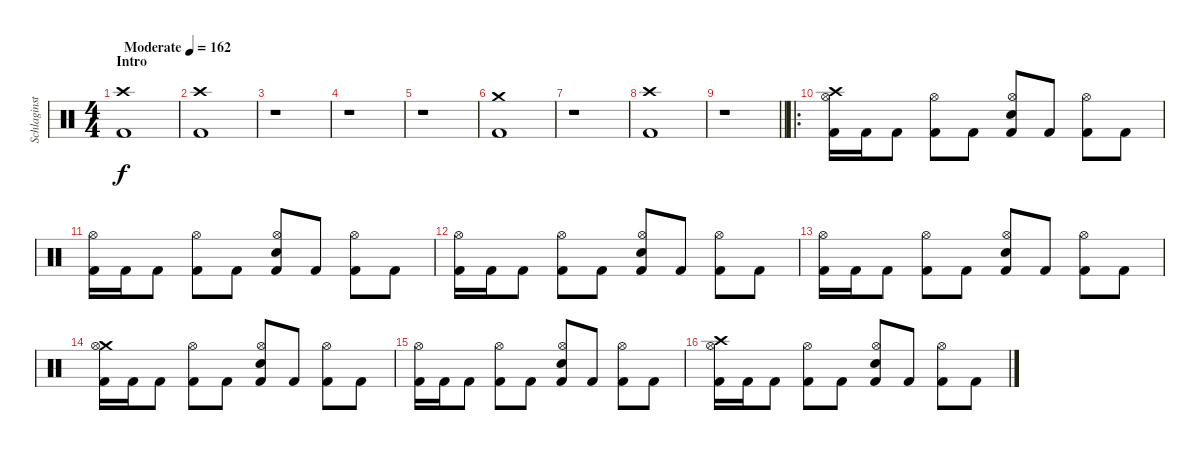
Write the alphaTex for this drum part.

\track ("Schlaginstrumente - Auswahl" "Schlaginst") {instrument percussion}
\staff {score}
\articulation defaults
\ts (4 4)
\section ("" "Intro")
\tempo (162 "Moderate")
\clef neutral
\ks c
("Crash high (hit)" "Kick (hit) 2").1{dy f} |
("Crash high (hit)" "Kick (hit) 2").1 |
r.1 |
r.1 |
r.1 |
("Crash medium (hit)" "Kick (hit) 2").1 |
r.1 |
("Crash high (hit)" "Kick (hit) 2").1 |
\barLineRight lightlight
r.1 |
\ro
("Crash high (hit)" "Hi-Hat (open)" "Kick (hit) 2").16 "Kick (hit) 2".16 "Kick (hit) 2".8 ("Hi-Hat (open)" "Kick (hit) 2").8 "Kick (hit) 2".8 ("Hi-Hat (open)" "Electric Snare (hit)" "Kick (hit) 2").8 "Kick (hit) 2".8 ("Hi-Hat (open)" "Kick (hit) 2").8 "Kick (hit) 2".8 |
("Hi-Hat (open)" "Kick (hit) 2").16 "Kick (hit) 2".16 "Kick (hit) 2".8 ("Hi-Hat (open)" "Kick (hit) 2").8 "Kick (hit) 2".8 ("Hi-Hat (open)" "Electric Snare (hit)" "Kick (hit) 2").8 "Kick (hit) 2".8 ("Hi-Hat (open)" "Kick (hit) 2").8 "Kick (hit) 2".8 |
("Hi-Hat (open)" "Kick (hit) 2").16 "Kick (hit) 2".16 "Kick (hit) 2".8 ("Hi-Hat (open)" "Kick (hit) 2").8 "Kick (hit) 2".8 ("Hi-Hat (open)" "Electric Snare (hit)" "Kick (hit) 2").8 "Kick (hit) 2".8 ("Hi-Hat (open)" "Kick (hit) 2").8 "Kick (hit) 2".8 |
("Hi-Hat (open)" "Kick (hit) 2").16 "Kick (hit) 2".16 "Kick (hit) 2".8 ("Hi-Hat (open)" "Kick (hit) 2").8 "Kick (hit) 2".8 ("Hi-Hat (open)" "Electric Snare (hit)" "Kick (hit) 2").8 "Kick (hit) 2".8 ("Hi-Hat (open)" "Kick (hit) 2").8 "Kick (hit) 2".8 |
("Crash medium (hit)" "Hi-Hat (open)" "Kick (hit) 2").16 "Kick (hit) 2".16 "Kick (hit) 2".8 ("Hi-Hat (open)" "Kick (hit) 2").8 "Kick (hit) 2".8 ("Hi-Hat (open)" "Electric Snare (hit)" "Kick (hit) 2").8 "Kick (hit) 2".8 ("Hi-Hat (open)" "Kick (hit) 2").8 "Kick (hit) 2".8 |
("Hi-Hat (open)" "Kick (hit) 2").16 "Kick (hit) 2".16 "Kick (hit) 2".8 ("Hi-Hat (open)" "Kick (hit) 2").8 "Kick (hit) 2".8 ("Hi-Hat (open)" "Electric Snare (hit)" "Kick (hit) 2").8 "Kick (hit) 2".8 ("Hi-Hat (open)" "Kick (hit) 2").8 "Kick (hit) 2".8 |
("Crash high (hit)" "Hi-Hat (open)" "Kick (hit) 2").16 "Kick (hit) 2".16 "Kick (hit) 2".8 ("Hi-Hat (open)" "Kick (hit) 2").8 "Kick (hit) 2".8 ("Hi-Hat (open)" "Electric Snare (hit)" "Kick (hit) 2").8 "Kick (hit) 2".8 ("Hi-Hat (open)" "Kick (hit) 2").8 "Kick (hit) 2".8
